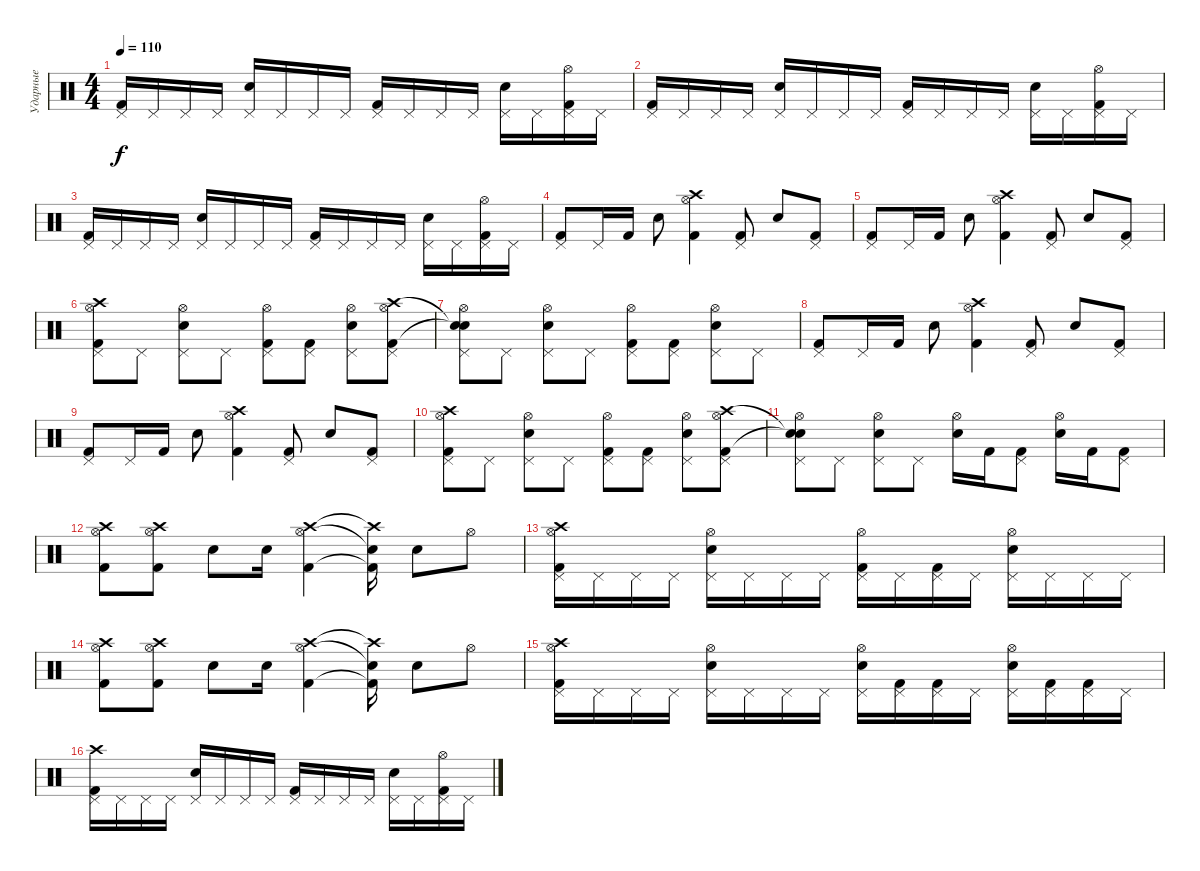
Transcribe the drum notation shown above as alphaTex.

\track ("Ударные" "Ударные") {instrument percussion}
\staff {score}
\articulation defaults
\ts (4 4)
\tempo 110
\clef neutral
\ks c
("Kick (hit) 2" "Pedal Hi-Hat (hit)").16{dy f} "Pedal Hi-Hat (hit)".16 "Pedal Hi-Hat (hit)".16 "Pedal Hi-Hat (hit)".16 ("Snare (hit) 2" "Pedal Hi-Hat (hit)").16 "Pedal Hi-Hat (hit)".16 "Pedal Hi-Hat (hit)".16 "Pedal Hi-Hat (hit)".16 ("Kick (hit) 2" "Pedal Hi-Hat (hit)").16 "Pedal Hi-Hat (hit)".16 "Pedal Hi-Hat (hit)".16 "Pedal Hi-Hat (hit)".16 ("Snare (hit) 2" "Pedal Hi-Hat (hit)").16 "Pedal Hi-Hat (hit)".16 ("Kick (hit) 2" "Pedal Hi-Hat (hit)" "Hi-Hat (open)").16 "Pedal Hi-Hat (hit)".16 |
("Kick (hit) 2" "Pedal Hi-Hat (hit)").16 "Pedal Hi-Hat (hit)".16 "Pedal Hi-Hat (hit)".16 "Pedal Hi-Hat (hit)".16 ("Snare (hit) 2" "Pedal Hi-Hat (hit)").16 "Pedal Hi-Hat (hit)".16 "Pedal Hi-Hat (hit)".16 "Pedal Hi-Hat (hit)".16 ("Kick (hit) 2" "Pedal Hi-Hat (hit)").16 "Pedal Hi-Hat (hit)".16 "Pedal Hi-Hat (hit)".16 "Pedal Hi-Hat (hit)".16 ("Snare (hit) 2" "Pedal Hi-Hat (hit)").16 "Pedal Hi-Hat (hit)".16 ("Kick (hit) 2" "Pedal Hi-Hat (hit)" "Hi-Hat (open)").16 "Pedal Hi-Hat (hit)".16 |
("Kick (hit) 2" "Pedal Hi-Hat (hit)").16 "Pedal Hi-Hat (hit)".16 "Pedal Hi-Hat (hit)".16 "Pedal Hi-Hat (hit)".16 ("Snare (hit) 2" "Pedal Hi-Hat (hit)").16 "Pedal Hi-Hat (hit)".16 "Pedal Hi-Hat (hit)".16 "Pedal Hi-Hat (hit)".16 ("Kick (hit) 2" "Pedal Hi-Hat (hit)").16 "Pedal Hi-Hat (hit)".16 "Pedal Hi-Hat (hit)".16 "Pedal Hi-Hat (hit)".16 ("Snare (hit) 2" "Pedal Hi-Hat (hit)").16 "Pedal Hi-Hat (hit)".16 ("Kick (hit) 2" "Pedal Hi-Hat (hit)" "Hi-Hat (open)").16 "Pedal Hi-Hat (hit)".16 |
("Kick (hit) 2" "Pedal Hi-Hat (hit)").8 "Pedal Hi-Hat (hit)".16 "Kick (hit) 2".16 "Snare (hit) 2".8 ("Kick (hit) 2" "Crash high (hit)" "Hi-Hat (open)").4 ("Kick (hit) 2" "Pedal Hi-Hat (hit)").8 "Snare (hit) 2".8 ("Kick (hit) 2" "Pedal Hi-Hat (hit)").8 |
("Kick (hit) 2" "Pedal Hi-Hat (hit)").8 "Pedal Hi-Hat (hit)".16 "Kick (hit) 2".16 "Snare (hit) 2".8 ("Kick (hit) 2" "Crash high (hit)" "Hi-Hat (open)").4 ("Kick (hit) 2" "Pedal Hi-Hat (hit)").8 "Snare (hit) 2".8 ("Kick (hit) 2" "Pedal Hi-Hat (hit)").8 |
("Kick (hit) 2" "Crash high (hit)" "Pedal Hi-Hat (hit)" "Hi-Hat (open)").8 "Pedal Hi-Hat (hit)".8 ("Snare (hit) 2" "Pedal Hi-Hat (hit)" "Hi-Hat (open)").8 "Pedal Hi-Hat (hit)".8 ("Kick (hit) 2" "Pedal Hi-Hat (hit)" "Hi-Hat (open)").8 ("Kick (hit) 2" "Pedal Hi-Hat (hit)").8 ("Snare (hit) 2" "Pedal Hi-Hat (hit)" "Hi-Hat (open)").8 ("Kick (hit) 2" "Crash high (hit)" "Pedal Hi-Hat (hit)" "Hi-Hat (open)").8 |
("Snare (hit)"{t} "Snare (hit)"{t} "Pedal Hi-Hat (hit)" "Hi-Hat (open)").8 "Pedal Hi-Hat (hit)".8 ("Snare (hit) 2" "Pedal Hi-Hat (hit)" "Hi-Hat (open)").8 "Pedal Hi-Hat (hit)".8 ("Kick (hit) 2" "Pedal Hi-Hat (hit)" "Hi-Hat (open)").8 ("Kick (hit) 2" "Pedal Hi-Hat (hit)").8 ("Snare (hit) 2" "Pedal Hi-Hat (hit)" "Hi-Hat (open)").8 "Pedal Hi-Hat (hit)".8 |
("Kick (hit) 2" "Pedal Hi-Hat (hit)").8 "Pedal Hi-Hat (hit)".16 "Kick (hit) 2".16 "Snare (hit) 2".8 ("Kick (hit) 2" "Crash high (hit)" "Hi-Hat (open)").4 ("Kick (hit) 2" "Pedal Hi-Hat (hit)").8 "Snare (hit) 2".8 ("Kick (hit) 2" "Pedal Hi-Hat (hit)").8 |
("Kick (hit) 2" "Pedal Hi-Hat (hit)").8 "Pedal Hi-Hat (hit)".16 "Kick (hit) 2".16 "Snare (hit) 2".8 ("Kick (hit) 2" "Crash high (hit)" "Hi-Hat (open)").4 ("Kick (hit) 2" "Pedal Hi-Hat (hit)").8 "Snare (hit) 2".8 ("Kick (hit) 2" "Pedal Hi-Hat (hit)").8 |
("Kick (hit) 2" "Crash high (hit)" "Pedal Hi-Hat (hit)" "Hi-Hat (open)").8 "Pedal Hi-Hat (hit)".8 ("Snare (hit) 2" "Pedal Hi-Hat (hit)" "Hi-Hat (open)").8 "Pedal Hi-Hat (hit)".8 ("Kick (hit) 2" "Pedal Hi-Hat (hit)" "Hi-Hat (open)").8 ("Kick (hit) 2" "Pedal Hi-Hat (hit)").8 ("Snare (hit) 2" "Pedal Hi-Hat (hit)" "Hi-Hat (open)").8 ("Kick (hit) 2" "Crash high (hit)" "Pedal Hi-Hat (hit)" "Hi-Hat (open)").8 |
("Snare (hit)"{t} "Snare (hit)"{t} "Pedal Hi-Hat (hit)" "Hi-Hat (open)").8 "Pedal Hi-Hat (hit)".8 ("Snare (hit) 2" "Pedal Hi-Hat (hit)" "Hi-Hat (open)").8 "Pedal Hi-Hat (hit)".8 ("Snare (hit) 2" "Hi-Hat (open)").16 "Kick (hit) 2".16 ("Kick (hit) 2" "Pedal Hi-Hat (hit)").8 ("Snare (hit) 2" "Hi-Hat (open)").16 "Kick (hit) 2".16 ("Kick (hit) 2" "Pedal Hi-Hat (hit)").8 |
("Kick (hit) 2" "Crash high (hit)" "Hi-Hat (open)").8 ("Kick (hit) 2" "Crash high (hit)" "Hi-Hat (open)").8 "Snare (hit) 2".8 "Snare (hit) 2".16 ("Kick (hit) 2" "Crash high (hit)" "Hi-Hat (open)").4 ("Kick (hit) 2"{t} "Crash high (hit)"{t} "Snare (hit)"{t}).16 "Snare (hit) 2".8 "Hi-Hat (open)".8 |
("Kick (hit) 2" "Crash high (hit)" "Pedal Hi-Hat (hit)" "Hi-Hat (open)").16 "Pedal Hi-Hat (hit)".16 "Pedal Hi-Hat (hit)".16 "Pedal Hi-Hat (hit)".16 ("Snare (hit) 2" "Pedal Hi-Hat (hit)" "Hi-Hat (open)").16 "Pedal Hi-Hat (hit)".16 "Pedal Hi-Hat (hit)".16 "Pedal Hi-Hat (hit)".16 ("Kick (hit) 2" "Pedal Hi-Hat (hit)" "Hi-Hat (open)").16 "Pedal Hi-Hat (hit)".16 ("Kick (hit) 2" "Pedal Hi-Hat (hit)").16 "Pedal Hi-Hat (hit)".16 ("Snare (hit) 2" "Pedal Hi-Hat (hit)" "Hi-Hat (open)").16 "Pedal Hi-Hat (hit)".16 "Pedal Hi-Hat (hit)".16 "Pedal Hi-Hat (hit)".16 |
("Kick (hit) 2" "Crash high (hit)" "Hi-Hat (open)").8 ("Kick (hit) 2" "Crash high (hit)" "Hi-Hat (open)").8 "Snare (hit) 2".8 "Snare (hit) 2".16 ("Kick (hit) 2" "Crash high (hit)" "Hi-Hat (open)").4 ("Kick (hit) 2"{t} "Crash high (hit)"{t} "Snare (hit)"{t}).16 "Snare (hit) 2".8 "Hi-Hat (open)".8 |
("Kick (hit) 2" "Crash high (hit)" "Pedal Hi-Hat (hit)" "Hi-Hat (open)").16 "Pedal Hi-Hat (hit)".16 "Pedal Hi-Hat (hit)".16 "Pedal Hi-Hat (hit)".16 ("Snare (hit) 2" "Pedal Hi-Hat (hit)" "Hi-Hat (open)").16 "Pedal Hi-Hat (hit)".16 "Pedal Hi-Hat (hit)".16 "Pedal Hi-Hat (hit)".16 ("Snare (hit) 2" "Pedal Hi-Hat (hit)" "Hi-Hat (open)").16 ("Kick (hit) 2" "Pedal Hi-Hat (hit)").16 ("Kick (hit) 2" "Pedal Hi-Hat (hit)").16 "Pedal Hi-Hat (hit)".16 ("Snare (hit) 2" "Pedal Hi-Hat (hit)" "Hi-Hat (open)").16 ("Kick (hit) 2" "Pedal Hi-Hat (hit)").16 ("Kick (hit) 2" "Pedal Hi-Hat (hit)").16 "Pedal Hi-Hat (hit)".16 |
("Kick (hit) 2" "Crash high (hit)" "Pedal Hi-Hat (hit)").16 "Pedal Hi-Hat (hit)".16 "Pedal Hi-Hat (hit)".16 "Pedal Hi-Hat (hit)".16 ("Snare (hit) 2" "Pedal Hi-Hat (hit)").16 "Pedal Hi-Hat (hit)".16 "Pedal Hi-Hat (hit)".16 "Pedal Hi-Hat (hit)".16 ("Kick (hit) 2" "Pedal Hi-Hat (hit)").16 "Pedal Hi-Hat (hit)".16 "Pedal Hi-Hat (hit)".16 "Pedal Hi-Hat (hit)".16 ("Snare (hit) 2" "Pedal Hi-Hat (hit)").16 "Pedal Hi-Hat (hit)".16 ("Kick (hit) 2" "Pedal Hi-Hat (hit)" "Hi-Hat (open)").16 "Pedal Hi-Hat (hit)".16
